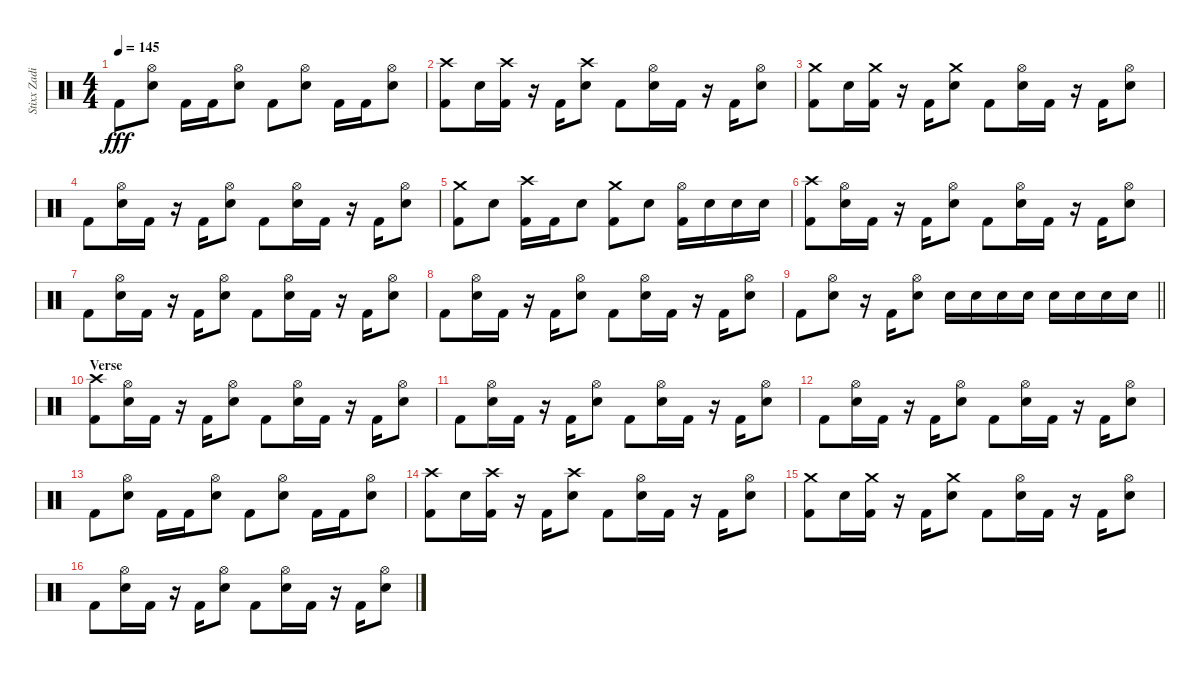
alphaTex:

\track ("Stixx Zadina (Sticks it in ya)" "Stixx Zadi") {instrument percussion}
\staff {score}
\articulation defaults
\ts (4 4)
\tempo 145
\clef neutral
\ks c "Kick (hit) 2".8{dy fff}
("Hi-Hat (open)" "Electric Snare (hit)").8 "Kick (hit) 2".16 "Kick (hit) 2".16 ("Hi-Hat (open)" "Electric Snare (hit)").8 "Kick (hit) 2".8 ("Hi-Hat (open)" "Electric Snare (hit)").8 "Kick (hit) 2".16 "Kick (hit) 2".16 ("Hi-Hat (open)" "Electric Snare (hit)").8 |
("Crash high (hit)" "Kick (hit) 2").8 "Electric Snare (hit)".16 ("Crash high (hit)" "Kick (hit) 2").16 r.16 "Kick (hit) 2".16 ("Crash high (hit)" "Electric Snare (hit)").8 "Kick (hit) 2".8 ("Hi-Hat (open)" "Electric Snare (hit)").16 "Kick (hit) 2".16 r.16 "Kick (hit) 2".16 ("Hi-Hat (open)" "Electric Snare (hit)").8 |
("Crash medium (hit)" "Kick (hit) 2").8 "Electric Snare (hit)".16 ("Crash medium (hit)" "Kick (hit) 2").16 r.16 "Kick (hit) 2".16 ("Crash medium (hit)" "Electric Snare (hit)").8 "Kick (hit) 2".8 ("Hi-Hat (open)" "Electric Snare (hit)").16 "Kick (hit) 2".16 r.16 "Kick (hit) 2".16 ("Hi-Hat (open)" "Electric Snare (hit)").8 |
"Kick (hit) 2".8 ("Hi-Hat (open)" "Electric Snare (hit)").16 "Kick (hit) 2".16 r.16 "Kick (hit) 2".16 ("Hi-Hat (open)" "Electric Snare (hit)").8 "Kick (hit) 2".8 ("Hi-Hat (open)" "Electric Snare (hit)").16 "Kick (hit) 2".16 r.16 "Kick (hit) 2".16 ("Hi-Hat (open)" "Electric Snare (hit)").8 |
("Crash medium (hit)" "Kick (hit) 2").8 "Electric Snare (hit)".8 ("Crash high (hit)" "Kick (hit) 2").16 "Kick (hit) 2".16 "Electric Snare (hit)".8 ("Crash medium (hit)" "Kick (hit) 2").8 "Electric Snare (hit)".8 ("Hi-Hat (open)" "Kick (hit) 2").16 "Electric Snare (hit)".16 "Electric Snare (hit)".16 "Electric Snare (hit)".16 |
("Crash high (hit)" "Kick (hit) 2").8 ("Hi-Hat (open)" "Electric Snare (hit)").16 "Kick (hit) 2".16 r.16 "Kick (hit) 2".16 ("Hi-Hat (open)" "Electric Snare (hit)").8 "Kick (hit) 2".8 ("Hi-Hat (open)" "Electric Snare (hit)").16 "Kick (hit) 2".16 r.16 "Kick (hit) 2".16 ("Hi-Hat (open)" "Electric Snare (hit)").8 |
"Kick (hit) 2".8 ("Hi-Hat (open)" "Electric Snare (hit)").16 "Kick (hit) 2".16 r.16 "Kick (hit) 2".16 ("Hi-Hat (open)" "Electric Snare (hit)").8 "Kick (hit) 2".8 ("Hi-Hat (open)" "Electric Snare (hit)").16 "Kick (hit) 2".16 r.16 "Kick (hit) 2".16 ("Hi-Hat (open)" "Electric Snare (hit)").8 |
"Kick (hit) 2".8 ("Hi-Hat (open)" "Electric Snare (hit)").16 "Kick (hit) 2".16 r.16 "Kick (hit) 2".16 ("Hi-Hat (open)" "Electric Snare (hit)").8 "Kick (hit) 2".8 ("Hi-Hat (open)" "Electric Snare (hit)").16 "Kick (hit) 2".16 r.16 "Kick (hit) 2".16 ("Hi-Hat (open)" "Electric Snare (hit)").8 |
\barLineRight lightlight "Kick (hit) 2".8
("Hi-Hat (open)" "Electric Snare (hit)").8 r.16 "Kick (hit) 2".16 ("Hi-Hat (open)" "Electric Snare (hit)").8 "Electric Snare (hit)".16 "Electric Snare (hit)".16 "Electric Snare (hit)".16 "Electric Snare (hit)".16 "Electric Snare (hit)".16 "Electric Snare (hit)".16 "Electric Snare (hit)".16 "Electric Snare (hit)".16 |
\section ("" "Verse")
("Crash high (hit)" "Kick (hit) 2").8 ("Hi-Hat (open)" "Electric Snare (hit)").16 "Kick (hit) 2".16 r.16 "Kick (hit) 2".16 ("Hi-Hat (open)" "Electric Snare (hit)").8 "Kick (hit) 2".8 ("Hi-Hat (open)" "Electric Snare (hit)").16 "Kick (hit) 2".16 r.16 "Kick (hit) 2".16 ("Hi-Hat (open)" "Electric Snare (hit)").8 |
"Kick (hit) 2".8 ("Hi-Hat (open)" "Electric Snare (hit)").16 "Kick (hit) 2".16 r.16 "Kick (hit) 2".16 ("Hi-Hat (open)" "Electric Snare (hit)").8 "Kick (hit) 2".8 ("Hi-Hat (open)" "Electric Snare (hit)").16 "Kick (hit) 2".16 r.16 "Kick (hit) 2".16 ("Hi-Hat (open)" "Electric Snare (hit)").8 |
"Kick (hit) 2".8 ("Hi-Hat (open)" "Electric Snare (hit)").16 "Kick (hit) 2".16 r.16 "Kick (hit) 2".16 ("Hi-Hat (open)" "Electric Snare (hit)").8 "Kick (hit) 2".8 ("Hi-Hat (open)" "Electric Snare (hit)").16 "Kick (hit) 2".16 r.16 "Kick (hit) 2".16 ("Hi-Hat (open)" "Electric Snare (hit)").8 |
"Kick (hit) 2".8 ("Hi-Hat (open)" "Electric Snare (hit)").8 "Kick (hit) 2".16 "Kick (hit) 2".16 ("Hi-Hat (open)" "Electric Snare (hit)").8 "Kick (hit) 2".8 ("Hi-Hat (open)" "Electric Snare (hit)").8 "Kick (hit) 2".16 "Kick (hit) 2".16 ("Hi-Hat (open)" "Electric Snare (hit)").8 |
("Crash high (hit)" "Kick (hit) 2").8 "Electric Snare (hit)".16 ("Crash high (hit)" "Kick (hit) 2").16 r.16 "Kick (hit) 2".16 ("Crash high (hit)" "Electric Snare (hit)").8 "Kick (hit) 2".8 ("Hi-Hat (open)" "Electric Snare (hit)").16 "Kick (hit) 2".16 r.16 "Kick (hit) 2".16 ("Hi-Hat (open)" "Electric Snare (hit)").8 |
("Crash medium (hit)" "Kick (hit) 2").8 "Electric Snare (hit)".16 ("Crash medium (hit)" "Kick (hit) 2").16 r.16 "Kick (hit) 2".16 ("Crash medium (hit)" "Electric Snare (hit)").8 "Kick (hit) 2".8 ("Hi-Hat (open)" "Electric Snare (hit)").16 "Kick (hit) 2".16 r.16 "Kick (hit) 2".16 ("Hi-Hat (open)" "Electric Snare (hit)").8 |
"Kick (hit) 2".8 ("Hi-Hat (open)" "Electric Snare (hit)").16 "Kick (hit) 2".16 r.16 "Kick (hit) 2".16 ("Hi-Hat (open)" "Electric Snare (hit)").8 "Kick (hit) 2".8 ("Hi-Hat (open)" "Electric Snare (hit)").16 "Kick (hit) 2".16 r.16 "Kick (hit) 2".16 ("Hi-Hat (open)" "Electric Snare (hit)").8
